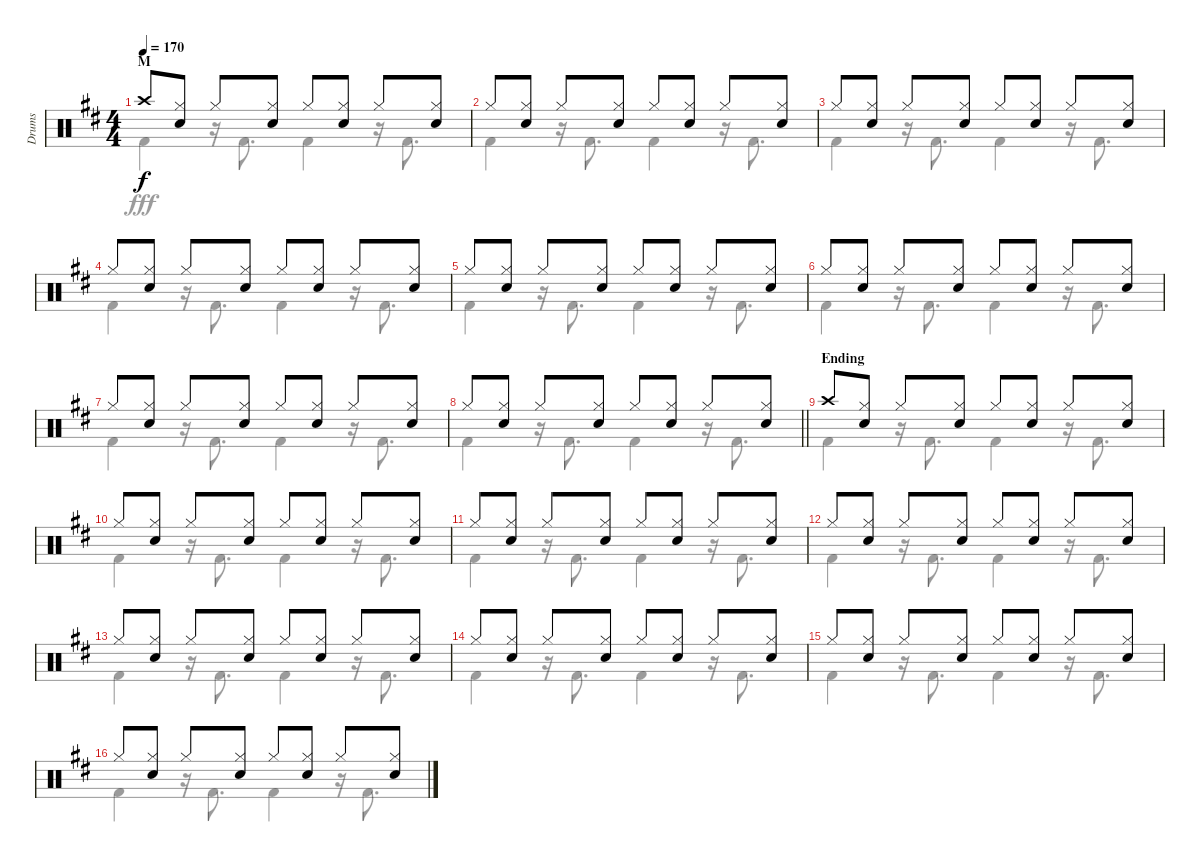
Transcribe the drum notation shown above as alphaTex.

\track ("Drums" "Drums") {instrument percussion}
\staff {score}
\articulation defaults
\voice
\ts (4 4)
\section ("" "M")
\tempo 170
\clef neutral
\ks d "Crash high (hit)".8{dy f}
("Hi-Hat (closed)" "Snare (hit) 2").8 "Hi-Hat (closed)".8 ("Hi-Hat (closed)" "Snare (hit) 2").8 "Hi-Hat (closed)".8 ("Hi-Hat (closed)" "Snare (hit) 2").8 "Hi-Hat (closed)".8 ("Hi-Hat (closed)" "Snare (hit) 2").8 |
"Hi-Hat (closed)".8 ("Hi-Hat (closed)" "Snare (hit) 2").8 "Hi-Hat (closed)".8 ("Hi-Hat (closed)" "Snare (hit) 2").8 "Hi-Hat (closed)".8 ("Hi-Hat (closed)" "Snare (hit) 2").8 "Hi-Hat (closed)".8 ("Hi-Hat (closed)" "Snare (hit) 2").8 |
"Hi-Hat (closed)".8 ("Hi-Hat (closed)" "Snare (hit) 2").8 "Hi-Hat (closed)".8 ("Hi-Hat (closed)" "Snare (hit) 2").8 "Hi-Hat (closed)".8 ("Hi-Hat (closed)" "Snare (hit) 2").8 "Hi-Hat (closed)".8 ("Hi-Hat (closed)" "Snare (hit) 2").8 |
"Hi-Hat (closed)".8 ("Hi-Hat (closed)" "Snare (hit) 2").8 "Hi-Hat (closed)".8 ("Hi-Hat (closed)" "Snare (hit) 2").8 "Hi-Hat (closed)".8 ("Hi-Hat (closed)" "Snare (hit) 2").8 "Hi-Hat (closed)".8 ("Hi-Hat (closed)" "Snare (hit) 2").8 |
"Hi-Hat (closed)".8 ("Hi-Hat (closed)" "Snare (hit) 2").8 "Hi-Hat (closed)".8 ("Hi-Hat (closed)" "Snare (hit) 2").8 "Hi-Hat (closed)".8 ("Hi-Hat (closed)" "Snare (hit) 2").8 "Hi-Hat (closed)".8 ("Hi-Hat (closed)" "Snare (hit) 2").8 |
"Hi-Hat (closed)".8 ("Hi-Hat (closed)" "Snare (hit) 2").8 "Hi-Hat (closed)".8 ("Hi-Hat (closed)" "Snare (hit) 2").8 "Hi-Hat (closed)".8 ("Hi-Hat (closed)" "Snare (hit) 2").8 "Hi-Hat (closed)".8 ("Hi-Hat (closed)" "Snare (hit) 2").8 |
"Hi-Hat (closed)".8 ("Hi-Hat (closed)" "Snare (hit) 2").8 "Hi-Hat (closed)".8 ("Hi-Hat (closed)" "Snare (hit) 2").8 "Hi-Hat (closed)".8 ("Hi-Hat (closed)" "Snare (hit) 2").8 "Hi-Hat (closed)".8 ("Hi-Hat (closed)" "Snare (hit) 2").8 |
\barLineRight lightlight "Hi-Hat (closed)".8
("Hi-Hat (closed)" "Snare (hit) 2").8 "Hi-Hat (closed)".8 ("Hi-Hat (closed)" "Snare (hit) 2").8 "Hi-Hat (closed)".8 ("Hi-Hat (closed)" "Snare (hit) 2").8 "Hi-Hat (closed)".8 ("Hi-Hat (closed)" "Snare (hit) 2").8 |
\section ("" "Ending")
"Crash high (hit)".8 ("Hi-Hat (closed)" "Snare (hit) 2").8 "Hi-Hat (closed)".8 ("Hi-Hat (closed)" "Snare (hit) 2").8 "Hi-Hat (closed)".8 ("Hi-Hat (closed)" "Snare (hit) 2").8 "Hi-Hat (closed)".8 ("Hi-Hat (closed)" "Snare (hit) 2").8 |
"Hi-Hat (closed)".8 ("Hi-Hat (closed)" "Snare (hit) 2").8 "Hi-Hat (closed)".8 ("Hi-Hat (closed)" "Snare (hit) 2").8 "Hi-Hat (closed)".8 ("Hi-Hat (closed)" "Snare (hit) 2").8 "Hi-Hat (closed)".8 ("Hi-Hat (closed)" "Snare (hit) 2").8 |
"Hi-Hat (closed)".8 ("Hi-Hat (closed)" "Snare (hit) 2").8 "Hi-Hat (closed)".8 ("Hi-Hat (closed)" "Snare (hit) 2").8 "Hi-Hat (closed)".8 ("Hi-Hat (closed)" "Snare (hit) 2").8 "Hi-Hat (closed)".8 ("Hi-Hat (closed)" "Snare (hit) 2").8 |
"Hi-Hat (closed)".8 ("Hi-Hat (closed)" "Snare (hit) 2").8 "Hi-Hat (closed)".8 ("Hi-Hat (closed)" "Snare (hit) 2").8 "Hi-Hat (closed)".8 ("Hi-Hat (closed)" "Snare (hit) 2").8 "Hi-Hat (closed)".8 ("Hi-Hat (closed)" "Snare (hit) 2").8 |
"Hi-Hat (closed)".8 ("Hi-Hat (closed)" "Snare (hit) 2").8 "Hi-Hat (closed)".8 ("Hi-Hat (closed)" "Snare (hit) 2").8 "Hi-Hat (closed)".8 ("Hi-Hat (closed)" "Snare (hit) 2").8 "Hi-Hat (closed)".8 ("Hi-Hat (closed)" "Snare (hit) 2").8 |
"Hi-Hat (closed)".8 ("Hi-Hat (closed)" "Snare (hit) 2").8 "Hi-Hat (closed)".8 ("Hi-Hat (closed)" "Snare (hit) 2").8 "Hi-Hat (closed)".8 ("Hi-Hat (closed)" "Snare (hit) 2").8 "Hi-Hat (closed)".8 ("Hi-Hat (closed)" "Snare (hit) 2").8 |
"Hi-Hat (closed)".8 ("Hi-Hat (closed)" "Snare (hit) 2").8 "Hi-Hat (closed)".8 ("Hi-Hat (closed)" "Snare (hit) 2").8 "Hi-Hat (closed)".8 ("Hi-Hat (closed)" "Snare (hit) 2").8 "Hi-Hat (closed)".8 ("Hi-Hat (closed)" "Snare (hit) 2").8 |
"Hi-Hat (closed)".8 ("Hi-Hat (closed)" "Snare (hit) 2").8 "Hi-Hat (closed)".8 ("Hi-Hat (closed)" "Snare (hit) 2").8 "Hi-Hat (closed)".8 ("Hi-Hat (closed)" "Snare (hit) 2").8 "Hi-Hat (closed)".8 ("Hi-Hat (closed)" "Snare (hit) 2").8
\voice
\clef neutral
\ottava regular
\simile none
\ks d "Kick (hit) 2".4{dy fff}
r.16 "Kick (hit) 2".8{d} "Kick (hit) 2".4 r.16 "Kick (hit) 2".8{d} |
"Kick (hit) 2".4 r.16 "Kick (hit) 2".8{d} "Kick (hit) 2".4 r.16 "Kick (hit) 2".8{d} |
"Kick (hit) 2".4 r.16 "Kick (hit) 2".8{d} "Kick (hit) 2".4 r.16 "Kick (hit) 2".8{d} |
"Kick (hit) 2".4 r.16 "Kick (hit) 2".8{d} "Kick (hit) 2".4 r.16 "Kick (hit) 2".8{d} |
"Kick (hit) 2".4 r.16 "Kick (hit) 2".8{d} "Kick (hit) 2".4 r.16 "Kick (hit) 2".8{d} |
"Kick (hit) 2".4 r.16 "Kick (hit) 2".8{d} "Kick (hit) 2".4 r.16 "Kick (hit) 2".8{d} |
"Kick (hit) 2".4 r.16 "Kick (hit) 2".8{d} "Kick (hit) 2".4 r.16 "Kick (hit) 2".8{d} |
\barLineRight lightlight "Kick (hit) 2".4
r.16 "Kick (hit) 2".8{d} "Kick (hit) 2".4 r.16 "Kick (hit) 2".8{d} |
"Kick (hit) 2".4 r.16 "Kick (hit) 2".8{d} "Kick (hit) 2".4 r.16 "Kick (hit) 2".8{d} |
"Kick (hit) 2".4 r.16 "Kick (hit) 2".8{d} "Kick (hit) 2".4 r.16 "Kick (hit) 2".8{d} |
"Kick (hit) 2".4 r.16 "Kick (hit) 2".8{d} "Kick (hit) 2".4 r.16 "Kick (hit) 2".8{d} |
"Kick (hit) 2".4 r.16 "Kick (hit) 2".8{d} "Kick (hit) 2".4 r.16 "Kick (hit) 2".8{d} |
"Kick (hit) 2".4 r.16 "Kick (hit) 2".8{d} "Kick (hit) 2".4 r.16 "Kick (hit) 2".8{d} |
"Kick (hit) 2".4 r.16 "Kick (hit) 2".8{d} "Kick (hit) 2".4 r.16 "Kick (hit) 2".8{d} |
"Kick (hit) 2".4 r.16 "Kick (hit) 2".8{d} "Kick (hit) 2".4 r.16 "Kick (hit) 2".8{d} |
"Kick (hit) 2".4 r.16 "Kick (hit) 2".8{d} "Kick (hit) 2".4 r.16 "Kick (hit) 2".8{d}
